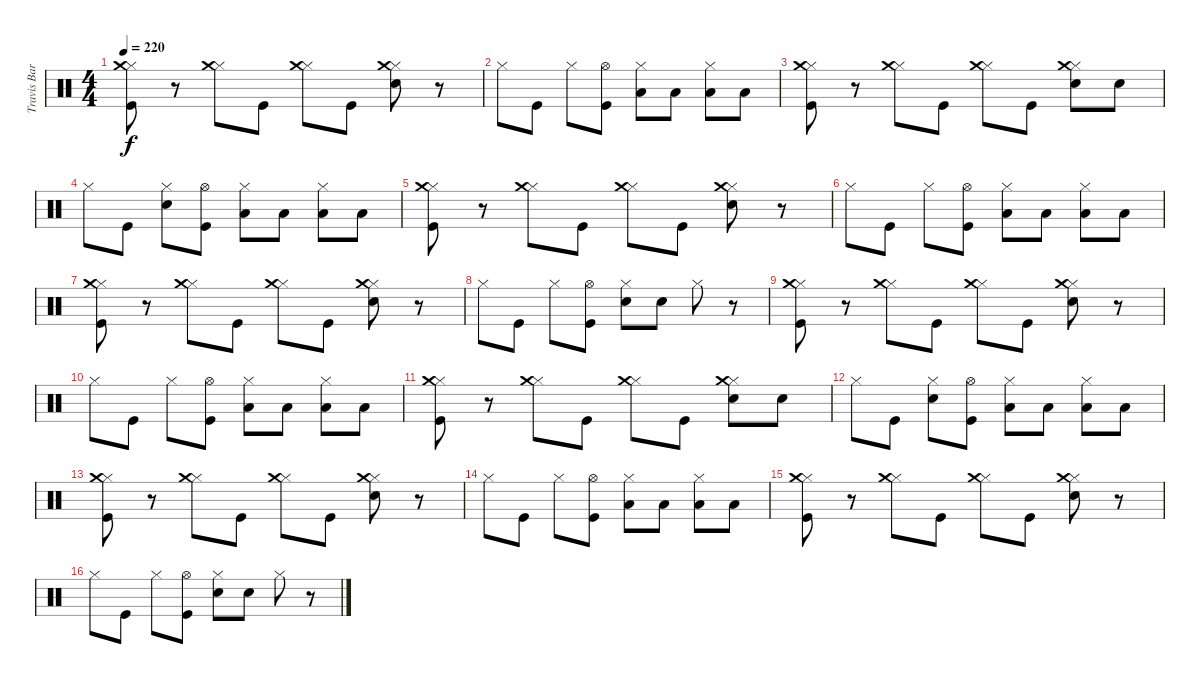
\track ("Travis Barker (Drums)" "Travis Bar") {instrument percussion}
\staff {score}
\articulation defaults
\ts (4 4)
\tempo 220
\clef neutral
\ks c
("Kick (hit)" "Hi-Hat (closed)" "Crash medium (hit)").8{dy f} r.8 ("Hi-Hat (closed)" "Crash medium (hit)").8 "Kick (hit)".8 ("Hi-Hat (closed)" "Crash medium (hit)").8 "Kick (hit)".8 ("Electric Snare (hit)" "Hi-Hat (closed)" "Crash medium (hit)").8 r.8 |
"Hi-Hat (closed)".8 "Kick (hit)".8 "Hi-Hat (closed)".8 ("Kick (hit)" "Hi-Hat (open)").8 ("Low Tom (hit)" "Hi-Hat (closed)").8 "Low Tom (hit)".8 ("Low Floor Tom (hit)" "Hi-Hat (closed)").8 "Low Floor Tom (hit)".8 |
("Kick (hit)" "Hi-Hat (closed)" "Crash medium (hit)").8 r.8 ("Hi-Hat (closed)" "Crash medium (hit)").8 "Kick (hit)".8 ("Hi-Hat (closed)" "Crash medium (hit)").8 "Kick (hit)".8 ("Electric Snare (hit)" "Hi-Hat (closed)" "Crash medium (hit)").8 "Electric Snare (hit)".8 |
"Hi-Hat (closed)".8 "Kick (hit)".8 ("Electric Snare (hit)" "Hi-Hat (closed)").8 ("Kick (hit)" "Hi-Hat (open)").8 ("Low Tom (hit)" "Hi-Hat (closed)").8 "Low Tom (hit)".8 ("Low Floor Tom (hit)" "Hi-Hat (closed)").8 "Low Floor Tom (hit)".8 |
("Kick (hit)" "Hi-Hat (closed)" "Crash medium (hit)").8 r.8 ("Hi-Hat (closed)" "Crash medium (hit)").8 "Kick (hit)".8 ("Hi-Hat (closed)" "Crash medium (hit)").8 "Kick (hit)".8 ("Electric Snare (hit)" "Hi-Hat (closed)" "Crash medium (hit)").8 r.8 |
"Hi-Hat (closed)".8 "Kick (hit)".8 "Hi-Hat (closed)".8 ("Kick (hit)" "Hi-Hat (open)").8 ("Low Tom (hit)" "Hi-Hat (closed)").8 "Low Tom (hit)".8 ("Low Floor Tom (hit)" "Hi-Hat (closed)").8 "Low Floor Tom (hit)".8 |
("Kick (hit)" "Hi-Hat (closed)" "Crash medium (hit)").8 r.8 ("Hi-Hat (closed)" "Crash medium (hit)").8 "Kick (hit)".8 ("Hi-Hat (closed)" "Crash medium (hit)").8 "Kick (hit)".8 ("Electric Snare (hit)" "Hi-Hat (closed)" "Crash medium (hit)").8 r.8 |
"Hi-Hat (closed)".8 "Kick (hit)".8 "Hi-Hat (closed)".8 ("Kick (hit)" "Hi-Hat (open)").8 ("Electric Snare (hit)" "Hi-Hat (closed)").8 "Electric Snare (hit)".8 "Hi-Hat (closed)".8 r.8 |
("Kick (hit)" "Hi-Hat (closed)" "Crash medium (hit)").8 r.8 ("Hi-Hat (closed)" "Crash medium (hit)").8 "Kick (hit)".8 ("Hi-Hat (closed)" "Crash medium (hit)").8 "Kick (hit)".8 ("Electric Snare (hit)" "Hi-Hat (closed)" "Crash medium (hit)").8 r.8 |
"Hi-Hat (closed)".8 "Kick (hit)".8 "Hi-Hat (closed)".8 ("Kick (hit)" "Hi-Hat (open)").8 ("Low Tom (hit)" "Hi-Hat (closed)").8 "Low Tom (hit)".8 ("Low Floor Tom (hit)" "Hi-Hat (closed)").8 "Low Floor Tom (hit)".8 |
("Kick (hit)" "Hi-Hat (closed)" "Crash medium (hit)").8 r.8 ("Hi-Hat (closed)" "Crash medium (hit)").8 "Kick (hit)".8 ("Hi-Hat (closed)" "Crash medium (hit)").8 "Kick (hit)".8 ("Electric Snare (hit)" "Hi-Hat (closed)" "Crash medium (hit)").8 "Electric Snare (hit)".8 |
"Hi-Hat (closed)".8 "Kick (hit)".8 ("Electric Snare (hit)" "Hi-Hat (closed)").8 ("Kick (hit)" "Hi-Hat (open)").8 ("Low Tom (hit)" "Hi-Hat (closed)").8 "Low Tom (hit)".8 ("Low Floor Tom (hit)" "Hi-Hat (closed)").8 "Low Floor Tom (hit)".8 |
("Kick (hit)" "Hi-Hat (closed)" "Crash medium (hit)").8 r.8 ("Hi-Hat (closed)" "Crash medium (hit)").8 "Kick (hit)".8 ("Hi-Hat (closed)" "Crash medium (hit)").8 "Kick (hit)".8 ("Electric Snare (hit)" "Hi-Hat (closed)" "Crash medium (hit)").8 r.8 |
"Hi-Hat (closed)".8 "Kick (hit)".8 "Hi-Hat (closed)".8 ("Kick (hit)" "Hi-Hat (open)").8 ("Low Tom (hit)" "Hi-Hat (closed)").8 "Low Tom (hit)".8 ("Low Floor Tom (hit)" "Hi-Hat (closed)").8 "Low Floor Tom (hit)".8 |
("Kick (hit)" "Hi-Hat (closed)" "Crash medium (hit)").8 r.8 ("Hi-Hat (closed)" "Crash medium (hit)").8 "Kick (hit)".8 ("Hi-Hat (closed)" "Crash medium (hit)").8 "Kick (hit)".8 ("Electric Snare (hit)" "Hi-Hat (closed)" "Crash medium (hit)").8 r.8 |
"Hi-Hat (closed)".8 "Kick (hit)".8 "Hi-Hat (closed)".8 ("Kick (hit)" "Hi-Hat (open)").8 ("Electric Snare (hit)" "Hi-Hat (closed)").8 "Electric Snare (hit)".8 "Hi-Hat (closed)".8 r.8
